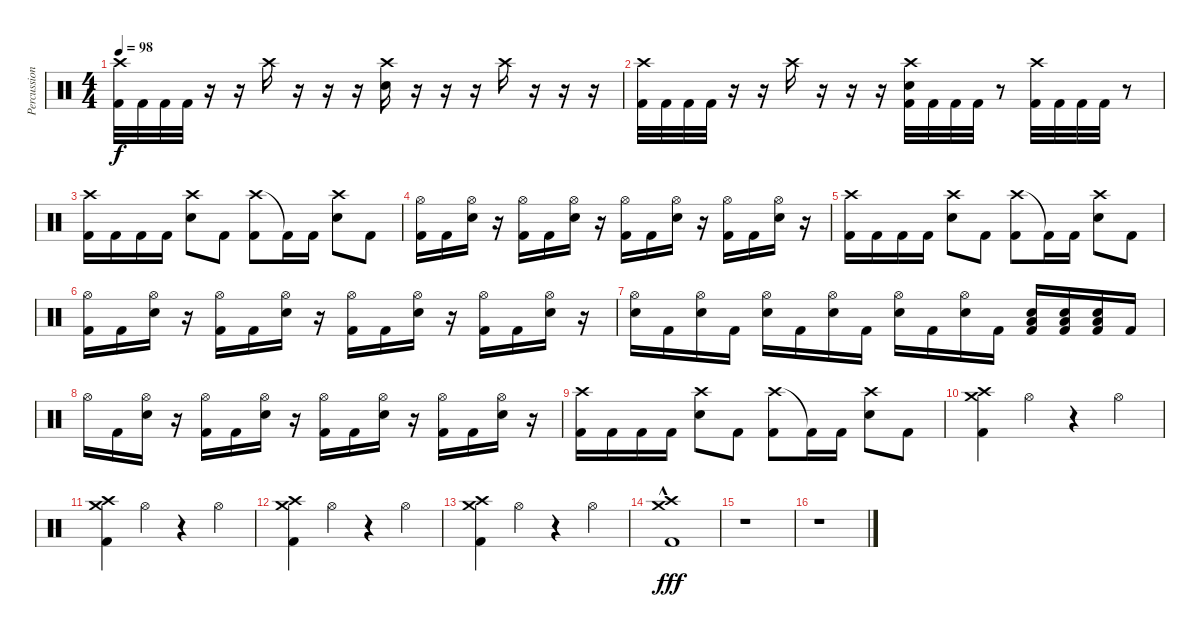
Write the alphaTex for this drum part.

\track ("Percussion" "Percussion") {instrument percussion}
\staff {score}
\articulation defaults
\ts (4 4)
\tempo 98
\clef neutral
\ks c
("Crash high (hit)" "Kick (hit) 2").32{dy f} "Kick (hit) 2".32 "Kick (hit) 2".32 "Kick (hit) 2".32 r.16 r.16 "Crash high (hit)".16 r.16 r.16 r.16 ("Snare (hit) 2" "Crash high (hit)").16 r.16 r.16 r.16 "Crash high (hit)".16 r.16 r.16 r.16 |
("Crash high (hit)" "Kick (hit) 2").32 "Kick (hit) 2".32 "Kick (hit) 2".32 "Kick (hit) 2".32 r.16 r.16 "Crash high (hit)".16 r.16 r.16 r.16 ("Snare (hit) 2" "Crash high (hit)" "Kick (hit) 2").32 "Kick (hit) 2".32 "Kick (hit) 2".32 "Kick (hit) 2".32 r.8 ("Crash high (hit)" "Kick (hit) 2").32 "Kick (hit) 2".32 "Kick (hit) 2".32 "Kick (hit) 2".32 r.8 |
("Crash high (hit)" "Kick (hit) 2").16 "Kick (hit) 2".16 "Kick (hit) 2".16 "Kick (hit) 2".16 ("Crash high (hit)" "Snare (hit) 2").8 "Kick (hit) 2".8 ("Crash high (hit)" "Kick (hit) 2").8 "Kick (hit) 2"{t}.16 "Kick (hit) 2".16 ("Crash high (hit)" "Snare (hit) 2").8 "Kick (hit) 2".8 |
("Hi-Hat (open)" "Kick (hit) 2").16 "Kick (hit) 2".16 ("Hi-Hat (open)" "Snare (hit) 2").16 r.16 ("Hi-Hat (open)" "Kick (hit) 2").16 "Kick (hit) 2".16 ("Hi-Hat (open)" "Snare (hit) 2").16 r.16 ("Hi-Hat (open)" "Kick (hit) 2").16 "Kick (hit) 2".16 ("Hi-Hat (open)" "Snare (hit) 2").16 r.16 ("Hi-Hat (open)" "Kick (hit) 2").16 "Kick (hit) 2".16 ("Hi-Hat (open)" "Snare (hit) 2").16 r.16 |
("Crash high (hit)" "Kick (hit) 2").16 "Kick (hit) 2".16 "Kick (hit) 2".16 "Kick (hit) 2".16 ("Crash high (hit)" "Snare (hit) 2").8 "Kick (hit) 2".8 ("Crash high (hit)" "Kick (hit) 2").8 "Kick (hit) 2"{t}.16 "Kick (hit) 2".16 ("Crash high (hit)" "Snare (hit) 2").8 "Kick (hit) 2".8 |
("Hi-Hat (open)" "Kick (hit) 2").16 "Kick (hit) 2".16 ("Hi-Hat (open)" "Snare (hit) 2").16 r.16 ("Hi-Hat (open)" "Kick (hit) 2").16 "Kick (hit) 2".16 ("Hi-Hat (open)" "Snare (hit) 2").16 r.16 ("Hi-Hat (open)" "Kick (hit) 2").16 "Kick (hit) 2".16 ("Hi-Hat (open)" "Snare (hit) 2").16 r.16 ("Hi-Hat (open)" "Kick (hit) 2").16 "Kick (hit) 2".16 ("Hi-Hat (open)" "Snare (hit) 2").16 r.16 |
("Hi-Hat (open)" "Snare (hit) 2").16 "Kick (hit) 2".16 ("Hi-Hat (open)" "Snare (hit) 2").16 "Kick (hit) 2".16 ("Hi-Hat (open)" "Snare (hit) 2").16 "Kick (hit) 2".16 ("Hi-Hat (open)" "Snare (hit) 2").16 "Kick (hit) 2".16 ("Hi-Hat (open)" "Snare (hit) 2").16 "Kick (hit) 2".16 ("Hi-Hat (open)" "Snare (hit) 2").16 "Kick (hit) 2".16 ("Low Floor Tom (hit)" "Snare (hit) 2" "Kick (hit) 2").16 ("Low Floor Tom (hit)" "Snare (hit) 2" "Kick (hit) 2").16 ("Low Floor Tom (hit)" "Snare (hit) 2" "Kick (hit) 2").16 "Kick (hit) 2".16 |
"Hi-Hat (open)".16 "Kick (hit) 2".16 ("Hi-Hat (open)" "Snare (hit) 2").16 r.16 ("Hi-Hat (open)" "Kick (hit) 2").16 "Kick (hit) 2".16 ("Hi-Hat (open)" "Snare (hit) 2").16 r.16 ("Hi-Hat (open)" "Kick (hit) 2").16 "Kick (hit) 2".16 ("Hi-Hat (open)" "Snare (hit) 2").16 r.16 ("Hi-Hat (open)" "Kick (hit) 2").16 "Kick (hit) 2".16 ("Hi-Hat (open)" "Snare (hit) 2").16 r.16 |
("Crash high (hit)" "Kick (hit) 2").16 "Kick (hit) 2".16 "Kick (hit) 2".16 "Kick (hit) 2".16 ("Crash high (hit)" "Snare (hit) 2").8 "Kick (hit) 2".8 ("Crash high (hit)" "Kick (hit) 2").8 "Kick (hit) 2"{t}.16 "Kick (hit) 2".16 ("Crash high (hit)" "Snare (hit) 2").8 "Kick (hit) 2".8 |
("Crash medium (hit)" "Crash high (hit)" "Kick (hit) 2").4 "Hi-Hat (open)".4 r.4 "Hi-Hat (open)".4 |
("Crash medium (hit)" "Crash high (hit)" "Kick (hit) 2").4 "Hi-Hat (open)".4 r.4 "Hi-Hat (open)".4 |
("Crash medium (hit)" "Crash high (hit)" "Kick (hit) 2").4 "Hi-Hat (open)".4 r.4 "Hi-Hat (open)".4 |
("Crash medium (hit)" "Crash high (hit)" "Kick (hit) 2").4 "Hi-Hat (open)".4 r.4 "Hi-Hat (open)".4 |
("Crash medium (hit)" "Crash high (hit)" "Kick (hit) 2"{hac}).1{dy fff} |
r.1 |
r.1
